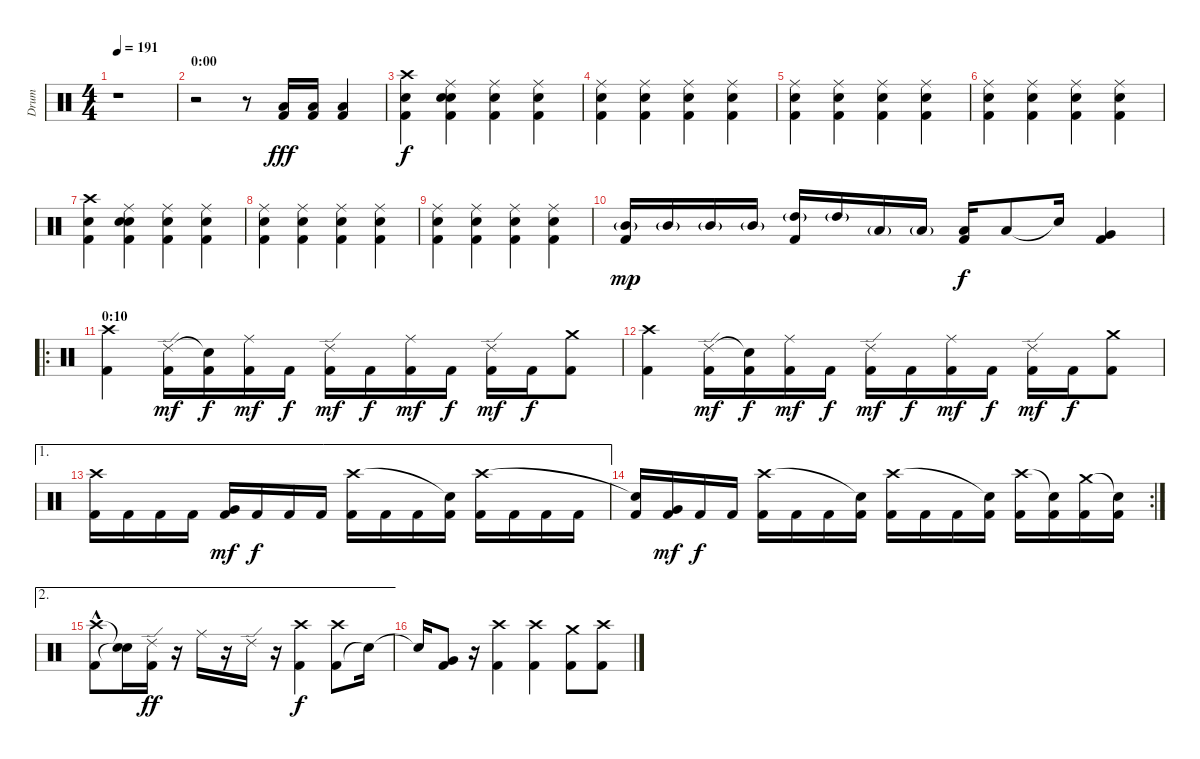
\track ("Drum" "Drum") {instrument percussion}
\staff {score}
\articulation defaults
\ts (4 4)
\tempo 191
\clef neutral
\ks c
r.1{dy fff} |
\section ("" "0:00")
r.2 r.8 ("Kick (hit) 2" "Low Floor Tom (hit)").16 ("Kick (hit) 2" "Low Floor Tom (hit)").16 ("Kick (hit) 2" "Low Floor Tom (hit)").4 |
("Kick (hit) 2" "Snare (hit) 2" "Crash high (hit)").4{dy f} ("Kick (hit) 2" "Snare (hit) 2" "Ride (middle)" "Snare (hit)").4 ("Kick (hit) 2" "Snare (hit) 2" "Ride (middle)").4 ("Kick (hit) 2" "Snare (hit) 2" "Ride (middle)").4 |
("Kick (hit) 2" "Snare (hit) 2" "Ride (middle)").4 ("Kick (hit) 2" "Snare (hit) 2" "Ride (middle)").4 ("Kick (hit) 2" "Snare (hit) 2" "Ride (middle)").4 ("Kick (hit) 2" "Snare (hit) 2" "Ride (middle)").4 |
("Kick (hit) 2" "Snare (hit) 2" "Ride (middle)").4 ("Kick (hit) 2" "Snare (hit) 2" "Ride (middle)").4 ("Kick (hit) 2" "Snare (hit) 2" "Ride (middle)").4 ("Kick (hit) 2" "Snare (hit) 2" "Ride (middle)").4 |
("Kick (hit) 2" "Snare (hit) 2" "Ride (middle)").4 ("Kick (hit) 2" "Snare (hit) 2" "Ride (middle)").4 ("Kick (hit) 2" "Snare (hit) 2" "Ride (middle)").4 ("Kick (hit) 2" "Snare (hit) 2" "Ride (middle)").4 |
("Kick (hit) 2" "Snare (hit) 2" "Crash high (hit)").4 ("Kick (hit) 2" "Snare (hit) 2" "Ride (middle)" "Snare (hit)").4 ("Kick (hit) 2" "Snare (hit) 2" "Ride (middle)").4 ("Kick (hit) 2" "Snare (hit) 2" "Ride (middle)").4 |
("Kick (hit) 2" "Snare (hit) 2" "Ride (middle)").4 ("Kick (hit) 2" "Snare (hit) 2" "Ride (middle)").4 ("Kick (hit) 2" "Snare (hit) 2" "Ride (middle)").4 ("Kick (hit) 2" "Snare (hit) 2" "Ride (middle)").4 |
("Kick (hit) 2" "Snare (hit) 2" "Ride (middle)").4 ("Kick (hit) 2" "Snare (hit) 2" "Ride (middle)").4 ("Kick (hit) 2" "Snare (hit) 2" "Ride (middle)").4 ("Kick (hit) 2" "Snare (hit) 2" "Ride (middle)").4 |
("Kick (hit) 2" "Mid Tom (hit)"{g}).16{dy mp} "Mid Tom (hit)"{g}.16 "Mid Tom (hit)"{g}.16 "Mid Tom (hit)"{g}.16 ("Kick (hit) 2" "High Tom (hit)"{g}).16 "High Tom (hit)"{g}.16 "Low Tom (hit)"{g}.16 "Low Tom (hit)"{g}.16 ("Kick (hit) 2" "Low Tom (hit)").16{dy f} "Low Tom (hit)".8 "Snare (hit)"{t}.16 ("Kick (hit) 2" "Very Low Tom (hit)").4 |
\ro
\section ("" "0:10")
("Kick (hit) 2" "Crash high (hit)").4 ("Kick (hit) 2" "Ride (edge) 2").16{dy mf} ("Kick (hit) 2" "Snare (hit)"{t}).16{dy f} ("Kick (hit) 2" "Ride (middle)").16{dy mf} "Kick (hit) 2".16{dy f} ("Kick (hit) 2" "Ride (edge) 2").16{dy mf} "Kick (hit) 2".16{dy f} ("Kick (hit) 2" "Ride (middle)").16{dy mf} "Kick (hit) 2".16{dy f} ("Kick (hit) 2" "Ride (edge) 2").16{dy mf} "Kick (hit) 2".16{dy f} ("Kick (hit) 2" "Crash medium (hit)").8 |
("Kick (hit) 2" "Crash high (hit)").4 ("Kick (hit) 2" "Ride (edge) 2").16{dy mf} ("Kick (hit) 2" "Snare (hit)"{t}).16{dy f} ("Kick (hit) 2" "Ride (middle)").16{dy mf} "Kick (hit) 2".16{dy f} ("Kick (hit) 2" "Ride (edge) 2").16{dy mf} "Kick (hit) 2".16{dy f} ("Kick (hit) 2" "Ride (middle)").16{dy mf} "Kick (hit) 2".16{dy f} ("Kick (hit) 2" "Ride (edge) 2").16{dy mf} "Kick (hit) 2".16{dy f} ("Kick (hit) 2" "Crash medium (hit)").8 |
\ae 1
("Kick (hit) 2" "Crash high (hit)").16 "Kick (hit) 2".16 "Kick (hit) 2".16 "Kick (hit) 2".16 ("Kick (hit) 2" "Very Low Tom (hit)").16{dy mf} "Kick (hit) 2".16{dy f} "Kick (hit) 2".16 "Kick (hit) 2".16 ("Kick (hit) 2" "Crash high (hit)").16 "Kick (hit) 2".16 "Kick (hit) 2".16 ("Kick (hit) 2" "Snare (hit)"{t}).16 ("Kick (hit) 2" "Crash high (hit)").16 "Kick (hit) 2".16 "Kick (hit) 2".16 "Kick (hit) 2".16 |
\rc 2
("Kick (hit) 2" "Snare (hit)"{t}).16 ("Kick (hit) 2" "Very Low Tom (hit)").16{dy mf} "Kick (hit) 2".16{dy f} "Kick (hit) 2".16 ("Kick (hit) 2" "Crash high (hit)").16 "Kick (hit) 2".16 "Kick (hit) 2".16 ("Kick (hit) 2" "Snare (hit)"{t}).16 ("Kick (hit) 2" "Crash high (hit)").16 "Kick (hit) 2".16 "Kick (hit) 2".16 ("Kick (hit) 2" "Snare (hit)"{t}).16 ("Kick (hit) 2" "Crash high (hit)").16 ("Kick (hit) 2" "Snare (hit)"{t}).16 ("Kick (hit) 2" "Crash medium (hit)").16 ("Kick (hit) 2" "Snare (hit)"{t}).16 |
\ae 2
("Kick (hit) 2"{hac} "Crash high (hit)").8 ("Snare (hit)"{t} "Snare (hit)"{t}).16 ("Kick (hit) 2" "Ride (edge) 2").16{dy ff} r.16 "Ride (middle)".16 r.16 "Ride (edge) 2".16 r.16 ("Kick (hit) 2" "Crash high (hit)").4{dy f} ("Kick (hit) 2" "Crash high (hit)").8 "Snare (hit)"{t}.16 |
"Snare (hit)"{t}.16 ("Kick (hit) 2" "Very Low Tom (hit)").8 r.16 ("Kick (hit) 2" "Crash high (hit)").4 ("Kick (hit) 2" "Crash high (hit)").4 ("Kick (hit) 2" "Crash medium (hit)").8 ("Kick (hit) 2" "Crash high (hit)").8
